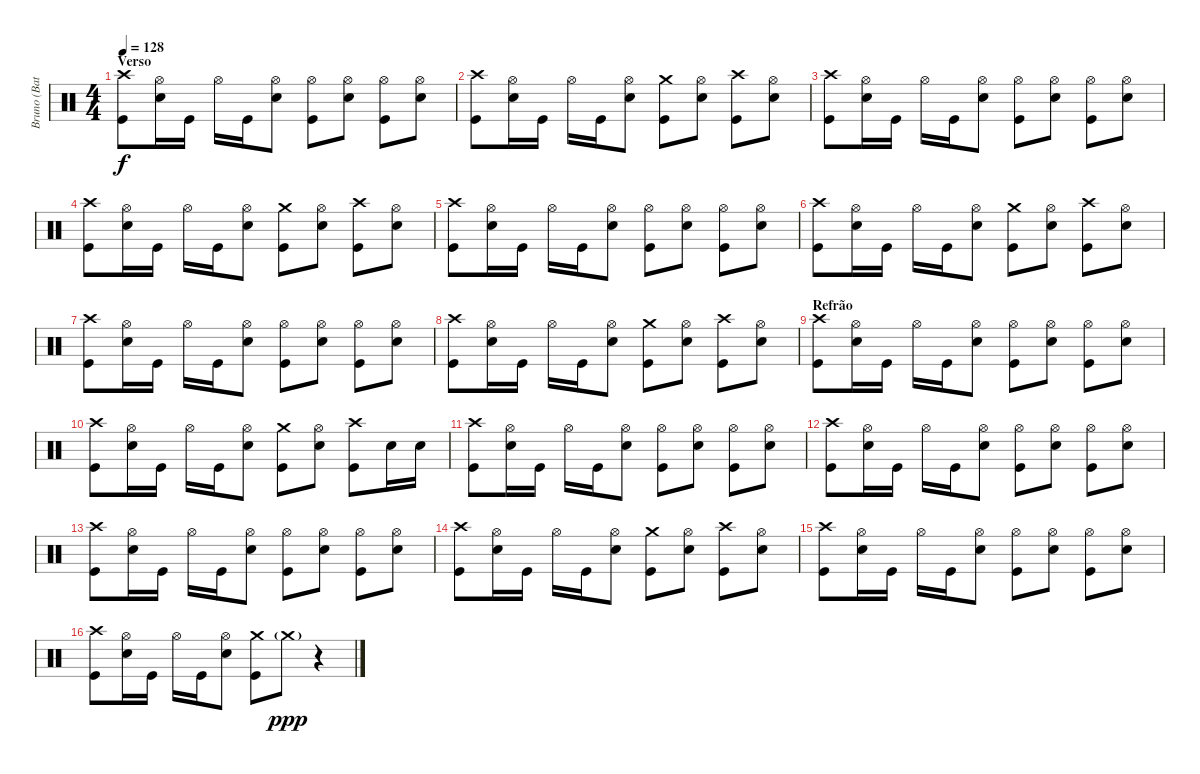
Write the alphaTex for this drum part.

\track ("Bruno (Bateria)" "Bruno (Bat") {instrument percussion}
\staff {score}
\articulation defaults
\ts (4 4)
\section ("" "Verso")
\tempo 128
\clef neutral
\ks c
("Crash high (hit)" "Kick (hit)").8{dy f} ("Hi-Hat (open)" "Electric Snare (hit)").16 "Kick (hit)".16 "Hi-Hat (open)".16 "Kick (hit)".16 ("Hi-Hat (open)" "Electric Snare (hit)").8 ("Hi-Hat (open)" "Kick (hit)").8 ("Hi-Hat (open)" "Electric Snare (hit)").8 ("Hi-Hat (open)" "Kick (hit)").8 ("Hi-Hat (open)" "Electric Snare (hit)").8 |
("Crash high (hit)" "Kick (hit)").8 ("Hi-Hat (open)" "Electric Snare (hit)").16 "Kick (hit)".16 "Hi-Hat (open)".16 "Kick (hit)".16 ("Hi-Hat (open)" "Electric Snare (hit)").8 ("Crash medium (hit)" "Kick (hit)").8 ("Hi-Hat (open)" "Electric Snare (hit)").8 ("Crash high (hit)" "Kick (hit)").8 ("Hi-Hat (open)" "Electric Snare (hit)").8 |
("Crash high (hit)" "Kick (hit)").8 ("Hi-Hat (open)" "Electric Snare (hit)").16 "Kick (hit)".16 "Hi-Hat (open)".16 "Kick (hit)".16 ("Hi-Hat (open)" "Electric Snare (hit)").8 ("Hi-Hat (open)" "Kick (hit)").8 ("Hi-Hat (open)" "Electric Snare (hit)").8 ("Hi-Hat (open)" "Kick (hit)").8 ("Hi-Hat (open)" "Electric Snare (hit)").8 |
("Crash high (hit)" "Kick (hit)").8 ("Hi-Hat (open)" "Electric Snare (hit)").16 "Kick (hit)".16 "Hi-Hat (open)".16 "Kick (hit)".16 ("Hi-Hat (open)" "Electric Snare (hit)").8 ("Crash medium (hit)" "Kick (hit)").8 ("Hi-Hat (open)" "Electric Snare (hit)").8 ("Crash high (hit)" "Kick (hit)").8 ("Hi-Hat (open)" "Electric Snare (hit)").8 |
("Crash high (hit)" "Kick (hit)").8 ("Hi-Hat (open)" "Electric Snare (hit)").16 "Kick (hit)".16 "Hi-Hat (open)".16 "Kick (hit)".16 ("Hi-Hat (open)" "Electric Snare (hit)").8 ("Hi-Hat (open)" "Kick (hit)").8 ("Hi-Hat (open)" "Electric Snare (hit)").8 ("Hi-Hat (open)" "Kick (hit)").8 ("Hi-Hat (open)" "Electric Snare (hit)").8 |
("Crash high (hit)" "Kick (hit)").8 ("Hi-Hat (open)" "Electric Snare (hit)").16 "Kick (hit)".16 "Hi-Hat (open)".16 "Kick (hit)".16 ("Hi-Hat (open)" "Electric Snare (hit)").8 ("Crash medium (hit)" "Kick (hit)").8 ("Hi-Hat (open)" "Electric Snare (hit)").8 ("Crash high (hit)" "Kick (hit)").8 ("Hi-Hat (open)" "Electric Snare (hit)").8 |
("Crash high (hit)" "Kick (hit)").8 ("Hi-Hat (open)" "Electric Snare (hit)").16 "Kick (hit)".16 "Hi-Hat (open)".16 "Kick (hit)".16 ("Hi-Hat (open)" "Electric Snare (hit)").8 ("Hi-Hat (open)" "Kick (hit)").8 ("Hi-Hat (open)" "Electric Snare (hit)").8 ("Hi-Hat (open)" "Kick (hit)").8 ("Hi-Hat (open)" "Electric Snare (hit)").8 |
("Crash high (hit)" "Kick (hit)").8 ("Hi-Hat (open)" "Electric Snare (hit)").16 "Kick (hit)".16 "Hi-Hat (open)".16 "Kick (hit)".16 ("Hi-Hat (open)" "Electric Snare (hit)").8 ("Crash medium (hit)" "Kick (hit)").8 ("Hi-Hat (open)" "Electric Snare (hit)").8 ("Crash high (hit)" "Kick (hit)").8 ("Hi-Hat (open)" "Electric Snare (hit)").8 |
\section ("" "Refrão")
("Crash high (hit)" "Kick (hit)").8 ("Hi-Hat (open)" "Electric Snare (hit)").16 "Kick (hit)".16 "Hi-Hat (open)".16 "Kick (hit)".16 ("Hi-Hat (open)" "Electric Snare (hit)").8 ("Hi-Hat (open)" "Kick (hit)").8 ("Hi-Hat (open)" "Electric Snare (hit)").8 ("Hi-Hat (open)" "Kick (hit)").8 ("Hi-Hat (open)" "Electric Snare (hit)").8 |
("Crash high (hit)" "Kick (hit)").8 ("Hi-Hat (open)" "Electric Snare (hit)").16 "Kick (hit)".16 "Hi-Hat (open)".16 "Kick (hit)".16 ("Hi-Hat (open)" "Electric Snare (hit)").8 ("Crash medium (hit)" "Kick (hit)").8 ("Hi-Hat (open)" "Electric Snare (hit)").8 ("Crash high (hit)" "Kick (hit)").8 "Electric Snare (hit)".16 "Electric Snare (hit)".16 |
("Crash high (hit)" "Kick (hit)").8 ("Hi-Hat (open)" "Electric Snare (hit)").16 "Kick (hit)".16 "Hi-Hat (open)".16 "Kick (hit)".16 ("Hi-Hat (open)" "Electric Snare (hit)").8 ("Hi-Hat (open)" "Kick (hit)").8 ("Hi-Hat (open)" "Electric Snare (hit)").8 ("Hi-Hat (open)" "Kick (hit)").8 ("Hi-Hat (open)" "Electric Snare (hit)").8 |
("Crash high (hit)" "Kick (hit)").8 ("Hi-Hat (open)" "Electric Snare (hit)").16 "Kick (hit)".16 "Hi-Hat (open)".16 "Kick (hit)".16 ("Hi-Hat (open)" "Electric Snare (hit)").8 ("Hi-Hat (open)" "Kick (hit)").8 ("Hi-Hat (open)" "Electric Snare (hit)").8 ("Hi-Hat (open)" "Kick (hit)").8 ("Hi-Hat (open)" "Electric Snare (hit)").8 |
("Crash high (hit)" "Kick (hit)").8 ("Hi-Hat (open)" "Electric Snare (hit)").16 "Kick (hit)".16 "Hi-Hat (open)".16 "Kick (hit)".16 ("Hi-Hat (open)" "Electric Snare (hit)").8 ("Hi-Hat (open)" "Kick (hit)").8 ("Hi-Hat (open)" "Electric Snare (hit)").8 ("Hi-Hat (open)" "Kick (hit)").8 ("Hi-Hat (open)" "Electric Snare (hit)").8 |
("Crash high (hit)" "Kick (hit)").8 ("Hi-Hat (open)" "Electric Snare (hit)").16 "Kick (hit)".16 "Hi-Hat (open)".16 "Kick (hit)".16 ("Hi-Hat (open)" "Electric Snare (hit)").8 ("Crash medium (hit)" "Kick (hit)").8 ("Hi-Hat (open)" "Electric Snare (hit)").8 ("Crash high (hit)" "Kick (hit)").8 ("Hi-Hat (open)" "Electric Snare (hit)").8 |
("Crash high (hit)" "Kick (hit)").8 ("Hi-Hat (open)" "Electric Snare (hit)").16 "Kick (hit)".16 "Hi-Hat (open)".16 "Kick (hit)".16 ("Hi-Hat (open)" "Electric Snare (hit)").8 ("Hi-Hat (open)" "Kick (hit)").8 ("Hi-Hat (open)" "Electric Snare (hit)").8 ("Hi-Hat (open)" "Kick (hit)").8 ("Hi-Hat (open)" "Electric Snare (hit)").8 |
("Crash high (hit)" "Kick (hit)").8 ("Hi-Hat (open)" "Electric Snare (hit)").16 "Kick (hit)".16 "Hi-Hat (open)".16 "Kick (hit)".16 ("Hi-Hat (open)" "Electric Snare (hit)").8 ("Crash medium (hit)" "Kick (hit)").8 "Crash medium (hit)"{g}.8{dy ppp} r.4
